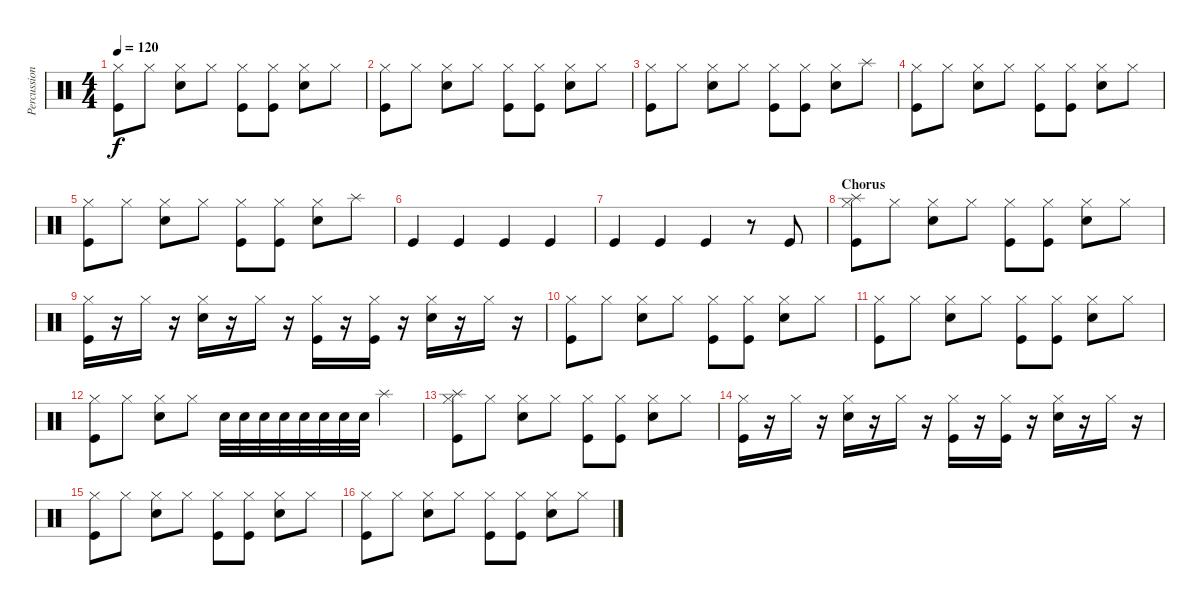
\track ("Percussion" "Percussion") {instrument percussion}
\staff {score}
\articulation defaults
\ts (4 4)
\tempo 120
\clef neutral
\ks c
("Hi-Hat (closed)" "Kick (hit)").8{dy f} "Hi-Hat (closed)".8 ("Hi-Hat (closed)" "Snare (hit) 2").8 "Hi-Hat (closed)".8 ("Hi-Hat (closed)" "Kick (hit)").8 ("Hi-Hat (closed)" "Kick (hit)").8 ("Hi-Hat (closed)" "Snare (hit) 2").8 "Hi-Hat (closed)".8 |
("Hi-Hat (closed)" "Kick (hit)").8 "Hi-Hat (closed)".8 ("Hi-Hat (closed)" "Snare (hit) 2").8 "Hi-Hat (closed)".8 ("Hi-Hat (closed)" "Kick (hit)").8 ("Hi-Hat (closed)" "Kick (hit)").8 ("Hi-Hat (closed)" "Snare (hit) 2").8 "Hi-Hat (closed)".8 |
("Hi-Hat (closed)" "Kick (hit)").8 "Hi-Hat (closed)".8 ("Hi-Hat (closed)" "Snare (hit) 2").8 "Hi-Hat (closed)".8 ("Hi-Hat (closed)" "Kick (hit)").8 ("Hi-Hat (closed)" "Kick (hit)").8 ("Hi-Hat (closed)" "Snare (hit) 2").8 "Splash (hit)".8 |
("Hi-Hat (closed)" "Kick (hit)").8 "Hi-Hat (closed)".8 ("Hi-Hat (closed)" "Snare (hit) 2").8 "Hi-Hat (closed)".8 ("Hi-Hat (closed)" "Kick (hit)").8 ("Hi-Hat (closed)" "Kick (hit)").8 ("Hi-Hat (closed)" "Snare (hit) 2").8 "Hi-Hat (closed)".8 |
("Hi-Hat (closed)" "Kick (hit)").8 "Hi-Hat (closed)".8 ("Hi-Hat (closed)" "Snare (hit) 2").8 "Hi-Hat (closed)".8 ("Hi-Hat (closed)" "Kick (hit)").8 ("Hi-Hat (closed)" "Kick (hit)").8 ("Hi-Hat (closed)" "Snare (hit) 2").8 "Splash (hit)".8 |
"Kick (hit)".4 "Kick (hit)".4 "Kick (hit)".4 "Kick (hit)".4 |
"Kick (hit)".4 "Kick (hit)".4 "Kick (hit)".4 r.8 "Kick (hit)".8 |
\section ("" "Chorus")
("Hi-Hat (closed)" "Kick (hit)" "Splash (hit)").8 "Hi-Hat (closed)".8 ("Hi-Hat (closed)" "Snare (hit) 2").8 "Hi-Hat (closed)".8 ("Hi-Hat (closed)" "Kick (hit)").8 ("Hi-Hat (closed)" "Kick (hit)").8 ("Hi-Hat (closed)" "Snare (hit) 2").8 "Hi-Hat (closed)".8 |
("Hi-Hat (closed)" "Kick (hit)").16 r.16 "Hi-Hat (closed)".16 r.16 ("Hi-Hat (closed)" "Snare (hit) 2").16 r.16 "Hi-Hat (closed)".16 r.16 ("Hi-Hat (closed)" "Kick (hit)").16 r.16 ("Hi-Hat (closed)" "Kick (hit)").16 r.16 ("Hi-Hat (closed)" "Snare (hit) 2").16 r.16 "Hi-Hat (closed)".16 r.16 |
("Hi-Hat (closed)" "Kick (hit)").8 "Hi-Hat (closed)".8 ("Hi-Hat (closed)" "Snare (hit) 2").8 "Hi-Hat (closed)".8 ("Hi-Hat (closed)" "Kick (hit)").8 ("Hi-Hat (closed)" "Kick (hit)").8 ("Hi-Hat (closed)" "Snare (hit) 2").8 "Hi-Hat (closed)".8 |
("Hi-Hat (closed)" "Kick (hit)").8 "Hi-Hat (closed)".8 ("Hi-Hat (closed)" "Snare (hit) 2").8 "Hi-Hat (closed)".8 ("Hi-Hat (closed)" "Kick (hit)").8 ("Hi-Hat (closed)" "Kick (hit)").8 ("Hi-Hat (closed)" "Snare (hit) 2").8 "Hi-Hat (closed)".8 |
("Hi-Hat (closed)" "Kick (hit)").8 "Hi-Hat (closed)".8 ("Hi-Hat (closed)" "Snare (hit) 2").8 "Hi-Hat (closed)".8 "Snare (hit) 2".32 "Snare (hit) 2".32 "Snare (hit) 2".32 "Snare (hit) 2".32 "Snare (hit) 2".32 "Snare (hit) 2".32 "Snare (hit) 2".32 "Snare (hit) 2".32 "Splash (hit)".4 |
("Hi-Hat (closed)" "Kick (hit)" "Splash (hit)").8 "Hi-Hat (closed)".8 ("Hi-Hat (closed)" "Snare (hit) 2").8 "Hi-Hat (closed)".8 ("Hi-Hat (closed)" "Kick (hit)").8 ("Hi-Hat (closed)" "Kick (hit)").8 ("Hi-Hat (closed)" "Snare (hit) 2").8 "Hi-Hat (closed)".8 |
("Hi-Hat (closed)" "Kick (hit)").16 r.16 "Hi-Hat (closed)".16 r.16 ("Hi-Hat (closed)" "Snare (hit) 2").16 r.16 "Hi-Hat (closed)".16 r.16 ("Hi-Hat (closed)" "Kick (hit)").16 r.16 ("Hi-Hat (closed)" "Kick (hit)").16 r.16 ("Hi-Hat (closed)" "Snare (hit) 2").16 r.16 "Hi-Hat (closed)".16 r.16 |
("Hi-Hat (closed)" "Kick (hit)").8 "Hi-Hat (closed)".8 ("Hi-Hat (closed)" "Snare (hit) 2").8 "Hi-Hat (closed)".8 ("Hi-Hat (closed)" "Kick (hit)").8 ("Hi-Hat (closed)" "Kick (hit)").8 ("Hi-Hat (closed)" "Snare (hit) 2").8 "Hi-Hat (closed)".8 |
("Hi-Hat (closed)" "Kick (hit)").8 "Hi-Hat (closed)".8 ("Hi-Hat (closed)" "Snare (hit) 2").8 "Hi-Hat (closed)".8 ("Hi-Hat (closed)" "Kick (hit)").8 ("Hi-Hat (closed)" "Kick (hit)").8 ("Hi-Hat (closed)" "Snare (hit) 2").8 "Hi-Hat (closed)".8
